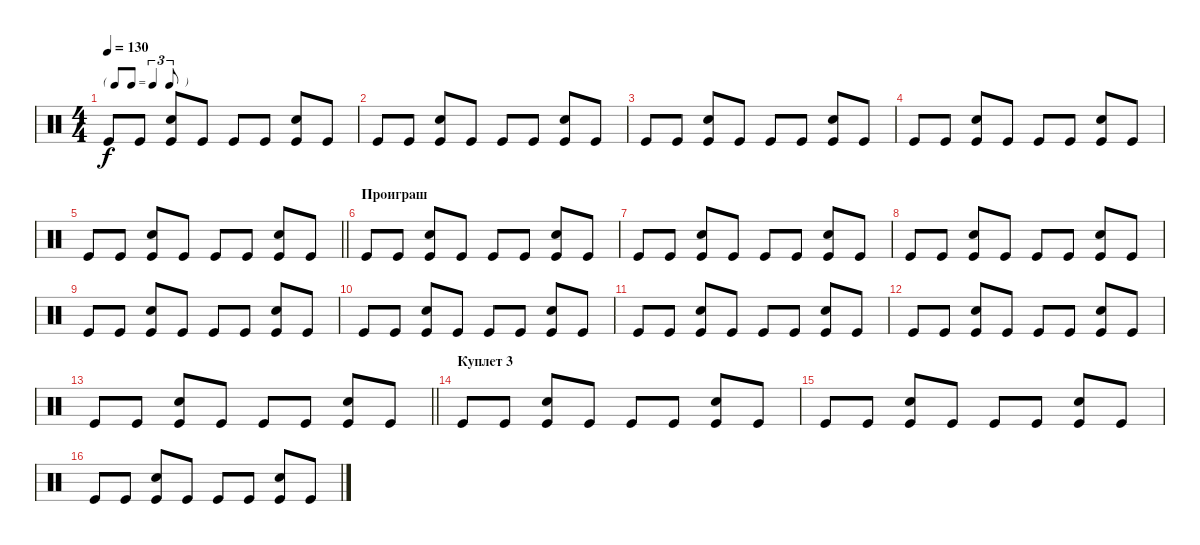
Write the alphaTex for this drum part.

\track "" {instrument percussion}
\staff {score}
\articulation defaults
\ts (4 4)
\tf triplet8th
\tempo 130
\clef neutral
\ks c "Kick (hit)".8{dy f} "Kick (hit)".8
("Snare (hit) 2" "Kick (hit)").8 "Kick (hit)".8 "Kick (hit)".8 "Kick (hit)".8 ("Snare (hit) 2" "Kick (hit)").8 "Kick (hit)".8 |
"Kick (hit)".8 "Kick (hit)".8 ("Snare (hit) 2" "Kick (hit)").8 "Kick (hit)".8 "Kick (hit)".8 "Kick (hit)".8 ("Snare (hit) 2" "Kick (hit)").8 "Kick (hit)".8 |
"Kick (hit)".8 "Kick (hit)".8 ("Snare (hit) 2" "Kick (hit)").8 "Kick (hit)".8 "Kick (hit)".8 "Kick (hit)".8 ("Snare (hit) 2" "Kick (hit)").8 "Kick (hit)".8 |
"Kick (hit)".8 "Kick (hit)".8 ("Snare (hit) 2" "Kick (hit)").8 "Kick (hit)".8 "Kick (hit)".8 "Kick (hit)".8 ("Snare (hit) 2" "Kick (hit)").8 "Kick (hit)".8 |
\barLineRight lightlight "Kick (hit)".8 "Kick (hit)".8
("Snare (hit) 2" "Kick (hit)").8 "Kick (hit)".8 "Kick (hit)".8 "Kick (hit)".8 ("Snare (hit) 2" "Kick (hit)").8 "Kick (hit)".8 |
\section ("" "Проиграш")
"Kick (hit)".8 "Kick (hit)".8 ("Snare (hit) 2" "Kick (hit)").8 "Kick (hit)".8 "Kick (hit)".8 "Kick (hit)".8 ("Snare (hit) 2" "Kick (hit)").8 "Kick (hit)".8 |
"Kick (hit)".8 "Kick (hit)".8 ("Snare (hit) 2" "Kick (hit)").8 "Kick (hit)".8 "Kick (hit)".8 "Kick (hit)".8 ("Snare (hit) 2" "Kick (hit)").8 "Kick (hit)".8 |
"Kick (hit)".8 "Kick (hit)".8 ("Snare (hit) 2" "Kick (hit)").8 "Kick (hit)".8 "Kick (hit)".8 "Kick (hit)".8 ("Snare (hit) 2" "Kick (hit)").8 "Kick (hit)".8 |
"Kick (hit)".8 "Kick (hit)".8 ("Snare (hit) 2" "Kick (hit)").8 "Kick (hit)".8 "Kick (hit)".8 "Kick (hit)".8 ("Snare (hit) 2" "Kick (hit)").8 "Kick (hit)".8 |
"Kick (hit)".8 "Kick (hit)".8 ("Snare (hit) 2" "Kick (hit)").8 "Kick (hit)".8 "Kick (hit)".8 "Kick (hit)".8 ("Snare (hit) 2" "Kick (hit)").8 "Kick (hit)".8 |
"Kick (hit)".8 "Kick (hit)".8 ("Snare (hit) 2" "Kick (hit)").8 "Kick (hit)".8 "Kick (hit)".8 "Kick (hit)".8 ("Snare (hit) 2" "Kick (hit)").8 "Kick (hit)".8 |
"Kick (hit)".8 "Kick (hit)".8 ("Snare (hit) 2" "Kick (hit)").8 "Kick (hit)".8 "Kick (hit)".8 "Kick (hit)".8 ("Snare (hit) 2" "Kick (hit)").8 "Kick (hit)".8 |
\barLineRight lightlight "Kick (hit)".8 "Kick (hit)".8
("Snare (hit) 2" "Kick (hit)").8 "Kick (hit)".8 "Kick (hit)".8 "Kick (hit)".8 ("Snare (hit) 2" "Kick (hit)").8 "Kick (hit)".8 |
\section ("" "Куплет 3")
"Kick (hit)".8 "Kick (hit)".8 ("Snare (hit) 2" "Kick (hit)").8 "Kick (hit)".8 "Kick (hit)".8 "Kick (hit)".8 ("Snare (hit) 2" "Kick (hit)").8 "Kick (hit)".8 |
"Kick (hit)".8 "Kick (hit)".8 ("Snare (hit) 2" "Kick (hit)").8 "Kick (hit)".8 "Kick (hit)".8 "Kick (hit)".8 ("Snare (hit) 2" "Kick (hit)").8 "Kick (hit)".8 |
"Kick (hit)".8 "Kick (hit)".8 ("Snare (hit) 2" "Kick (hit)").8 "Kick (hit)".8 "Kick (hit)".8 "Kick (hit)".8 ("Snare (hit) 2" "Kick (hit)").8 "Kick (hit)".8
